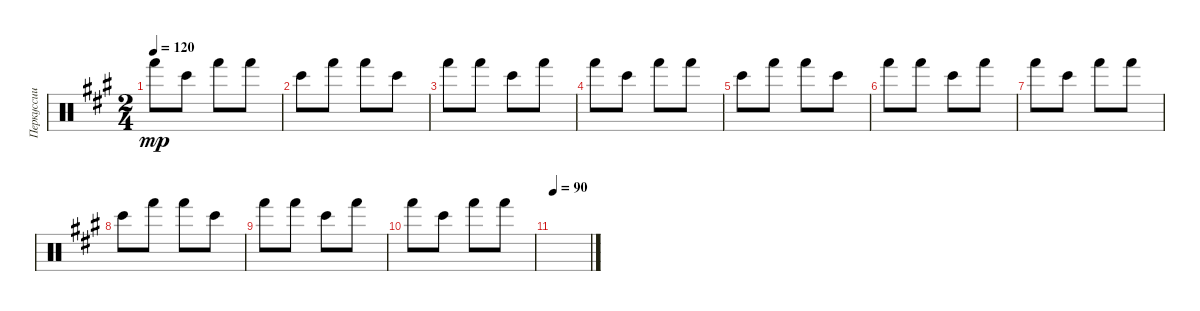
\track ("Перкуссии" "Перкуссии") {instrument percussion}
\staff {score}
\articulation defaults
\ts (2 4)
\tempo 120
\clef neutral
\ks f#minor "Hand (hit)".8{dy mp} "Bongo High (hit)".8 "Hand (hit)".8 "Hand (hit)".8
|
"Bongo High (hit)".8 "Hand (hit)".8 "Hand (hit)".8 "Bongo High (hit)".8 |
"Hand (hit)".8 "Hand (hit)".8 "Bongo High (hit)".8 "Hand (hit)".8 |
"Hand (hit)".8 "Bongo High (hit)".8 "Hand (hit)".8 "Hand (hit)".8 |
"Bongo High (hit)".8 "Hand (hit)".8 "Hand (hit)".8 "Bongo High (hit)".8 |
"Hand (hit)".8 "Hand (hit)".8 "Bongo High (hit)".8 "Hand (hit)".8 |
"Hand (hit)".8 "Bongo High (hit)".8 "Hand (hit)".8 "Hand (hit)".8 |
"Bongo High (hit)".8 "Hand (hit)".8 "Hand (hit)".8 "Bongo High (hit)".8 |
"Hand (hit)".8 "Hand (hit)".8 "Bongo High (hit)".8 "Hand (hit)".8 |
"Hand (hit)".8 "Bongo High (hit)".8 "Hand (hit)".8 "Hand (hit)".8 |
\tempo 90
